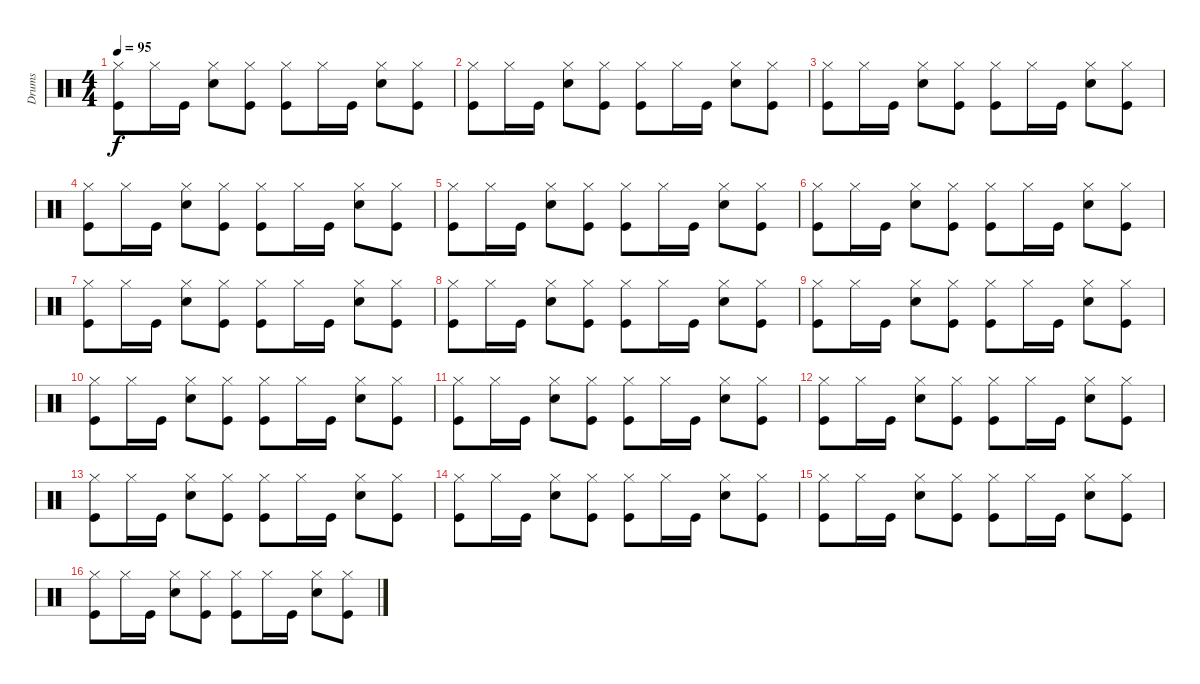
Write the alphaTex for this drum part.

\track ("Drums" "Drums") {instrument percussion}
\staff {score}
\articulation defaults
\ts (4 4)
\tempo 95
\clef neutral
\ks c
("Hi-Hat (closed)" "Kick (hit)").8{dy f} "Hi-Hat (closed)".16 "Kick (hit)".16 ("Hi-Hat (closed)" "Electric Snare (hit)").8 ("Hi-Hat (closed)" "Kick (hit)").8 ("Hi-Hat (closed)" "Kick (hit)").8 "Hi-Hat (closed)".16 "Kick (hit)".16 ("Hi-Hat (closed)" "Electric Snare (hit)").8 ("Hi-Hat (closed)" "Kick (hit)").8 |
("Hi-Hat (closed)" "Kick (hit)").8 "Hi-Hat (closed)".16 "Kick (hit)".16 ("Hi-Hat (closed)" "Electric Snare (hit)").8 ("Hi-Hat (closed)" "Kick (hit)").8 ("Hi-Hat (closed)" "Kick (hit)").8 "Hi-Hat (closed)".16 "Kick (hit)".16 ("Hi-Hat (closed)" "Electric Snare (hit)").8 ("Hi-Hat (closed)" "Kick (hit)").8 |
("Hi-Hat (closed)" "Kick (hit)").8 "Hi-Hat (closed)".16 "Kick (hit)".16 ("Hi-Hat (closed)" "Electric Snare (hit)").8 ("Hi-Hat (closed)" "Kick (hit)").8 ("Hi-Hat (closed)" "Kick (hit)").8 "Hi-Hat (closed)".16 "Kick (hit)".16 ("Hi-Hat (closed)" "Electric Snare (hit)").8 ("Hi-Hat (closed)" "Kick (hit)").8 |
("Hi-Hat (closed)" "Kick (hit)").8 "Hi-Hat (closed)".16 "Kick (hit)".16 ("Hi-Hat (closed)" "Electric Snare (hit)").8 ("Hi-Hat (closed)" "Kick (hit)").8 ("Hi-Hat (closed)" "Kick (hit)").8 "Hi-Hat (closed)".16 "Kick (hit)".16 ("Hi-Hat (closed)" "Electric Snare (hit)").8 ("Hi-Hat (closed)" "Kick (hit)").8 |
("Hi-Hat (closed)" "Kick (hit)").8 "Hi-Hat (closed)".16 "Kick (hit)".16 ("Hi-Hat (closed)" "Electric Snare (hit)").8 ("Hi-Hat (closed)" "Kick (hit)").8 ("Hi-Hat (closed)" "Kick (hit)").8 "Hi-Hat (closed)".16 "Kick (hit)".16 ("Hi-Hat (closed)" "Electric Snare (hit)").8 ("Hi-Hat (closed)" "Kick (hit)").8 |
("Hi-Hat (closed)" "Kick (hit)").8 "Hi-Hat (closed)".16 "Kick (hit)".16 ("Hi-Hat (closed)" "Electric Snare (hit)").8 ("Hi-Hat (closed)" "Kick (hit)").8 ("Hi-Hat (closed)" "Kick (hit)").8 "Hi-Hat (closed)".16 "Kick (hit)".16 ("Hi-Hat (closed)" "Electric Snare (hit)").8 ("Hi-Hat (closed)" "Kick (hit)").8 |
("Hi-Hat (closed)" "Kick (hit)").8 "Hi-Hat (closed)".16 "Kick (hit)".16 ("Hi-Hat (closed)" "Electric Snare (hit)").8 ("Hi-Hat (closed)" "Kick (hit)").8 ("Hi-Hat (closed)" "Kick (hit)").8 "Hi-Hat (closed)".16 "Kick (hit)".16 ("Hi-Hat (closed)" "Electric Snare (hit)").8 ("Hi-Hat (closed)" "Kick (hit)").8 |
("Hi-Hat (closed)" "Kick (hit)").8 "Hi-Hat (closed)".16 "Kick (hit)".16 ("Hi-Hat (closed)" "Electric Snare (hit)").8 ("Hi-Hat (closed)" "Kick (hit)").8 ("Hi-Hat (closed)" "Kick (hit)").8 "Hi-Hat (closed)".16 "Kick (hit)".16 ("Hi-Hat (closed)" "Electric Snare (hit)").8 ("Hi-Hat (closed)" "Kick (hit)").8 |
("Hi-Hat (closed)" "Kick (hit)").8 "Hi-Hat (closed)".16 "Kick (hit)".16 ("Hi-Hat (closed)" "Electric Snare (hit)").8 ("Hi-Hat (closed)" "Kick (hit)").8 ("Hi-Hat (closed)" "Kick (hit)").8 "Hi-Hat (closed)".16 "Kick (hit)".16 ("Hi-Hat (closed)" "Electric Snare (hit)").8 ("Hi-Hat (closed)" "Kick (hit)").8 |
("Hi-Hat (closed)" "Kick (hit)").8 "Hi-Hat (closed)".16 "Kick (hit)".16 ("Hi-Hat (closed)" "Electric Snare (hit)").8 ("Hi-Hat (closed)" "Kick (hit)").8 ("Hi-Hat (closed)" "Kick (hit)").8 "Hi-Hat (closed)".16 "Kick (hit)".16 ("Hi-Hat (closed)" "Electric Snare (hit)").8 ("Hi-Hat (closed)" "Kick (hit)").8 |
("Hi-Hat (closed)" "Kick (hit)").8 "Hi-Hat (closed)".16 "Kick (hit)".16 ("Hi-Hat (closed)" "Electric Snare (hit)").8 ("Hi-Hat (closed)" "Kick (hit)").8 ("Hi-Hat (closed)" "Kick (hit)").8 "Hi-Hat (closed)".16 "Kick (hit)".16 ("Hi-Hat (closed)" "Electric Snare (hit)").8 ("Hi-Hat (closed)" "Kick (hit)").8 |
("Hi-Hat (closed)" "Kick (hit)").8 "Hi-Hat (closed)".16 "Kick (hit)".16 ("Hi-Hat (closed)" "Electric Snare (hit)").8 ("Hi-Hat (closed)" "Kick (hit)").8 ("Hi-Hat (closed)" "Kick (hit)").8 "Hi-Hat (closed)".16 "Kick (hit)".16 ("Hi-Hat (closed)" "Electric Snare (hit)").8 ("Hi-Hat (closed)" "Kick (hit)").8 |
("Hi-Hat (closed)" "Kick (hit)").8 "Hi-Hat (closed)".16 "Kick (hit)".16 ("Hi-Hat (closed)" "Electric Snare (hit)").8 ("Hi-Hat (closed)" "Kick (hit)").8 ("Hi-Hat (closed)" "Kick (hit)").8 "Hi-Hat (closed)".16 "Kick (hit)".16 ("Hi-Hat (closed)" "Electric Snare (hit)").8 ("Hi-Hat (closed)" "Kick (hit)").8 |
("Hi-Hat (closed)" "Kick (hit)").8 "Hi-Hat (closed)".16 "Kick (hit)".16 ("Hi-Hat (closed)" "Electric Snare (hit)").8 ("Hi-Hat (closed)" "Kick (hit)").8 ("Hi-Hat (closed)" "Kick (hit)").8 "Hi-Hat (closed)".16 "Kick (hit)".16 ("Hi-Hat (closed)" "Electric Snare (hit)").8 ("Hi-Hat (closed)" "Kick (hit)").8 |
("Hi-Hat (closed)" "Kick (hit)").8 "Hi-Hat (closed)".16 "Kick (hit)".16 ("Hi-Hat (closed)" "Electric Snare (hit)").8 ("Hi-Hat (closed)" "Kick (hit)").8 ("Hi-Hat (closed)" "Kick (hit)").8 "Hi-Hat (closed)".16 "Kick (hit)".16 ("Hi-Hat (closed)" "Electric Snare (hit)").8 ("Hi-Hat (closed)" "Kick (hit)").8 |
("Hi-Hat (closed)" "Kick (hit)").8 "Hi-Hat (closed)".16 "Kick (hit)".16 ("Hi-Hat (closed)" "Electric Snare (hit)").8 ("Hi-Hat (closed)" "Kick (hit)").8 ("Hi-Hat (closed)" "Kick (hit)").8 "Hi-Hat (closed)".16 "Kick (hit)".16 ("Hi-Hat (closed)" "Electric Snare (hit)").8 ("Hi-Hat (closed)" "Kick (hit)").8
